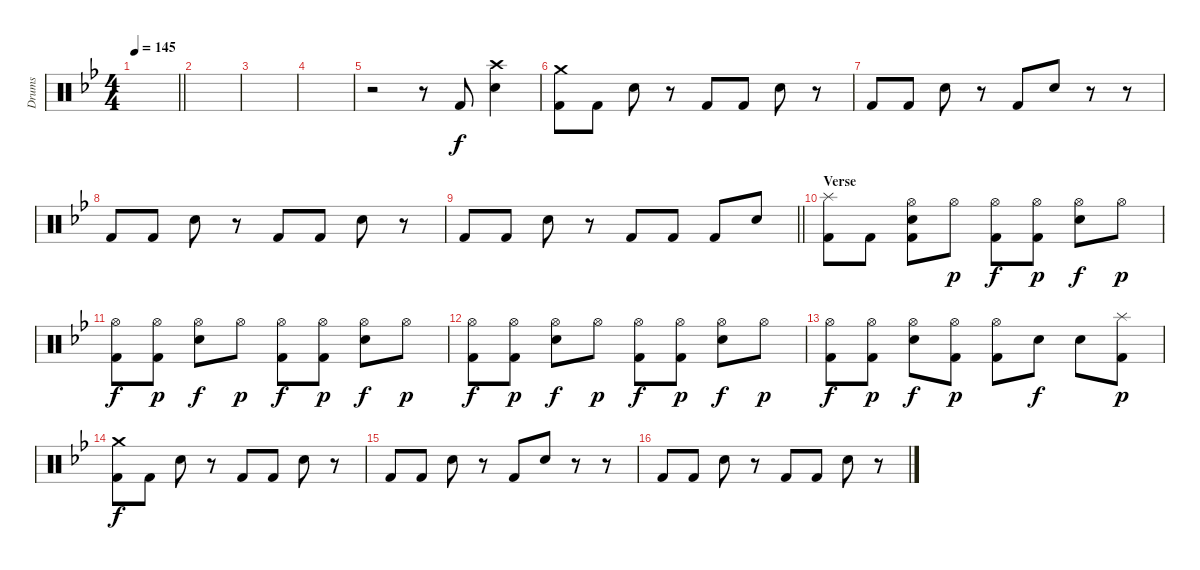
\track ("Drums" "Drums") {instrument percussion}
\staff {score}
\articulation defaults
\ts (4 4)
\tempo 145
\clef neutral
\barLineRight lightlight
\ks bb
|
|
|
|
r.2 r.8 "Kick (hit) 2".8 ("Crash high (hit)" "Electric Snare (hit)").4 |
("Crash medium (hit)" "Kick (hit) 2").8 "Kick (hit) 2".8 "Electric Snare (hit)".8 r.8 "Kick (hit) 2".8 "Kick (hit) 2".8 "Electric Snare (hit)".8 r.8 |
"Kick (hit) 2".8 "Kick (hit) 2".8 "Electric Snare (hit)".8 r.8 "Kick (hit) 2".8 "Electric Snare (hit)".8 r.8 r.8 |
"Kick (hit) 2".8 "Kick (hit) 2".8 "Electric Snare (hit)".8 r.8 "Kick (hit) 2".8 "Kick (hit) 2".8 "Electric Snare (hit)".8 r.8 |
\barLineRight lightlight "Kick (hit) 2".8 "Kick (hit) 2".8 "Electric Snare (hit)".8
r.8 "Kick (hit) 2".8 "Kick (hit) 2".8 "Kick (hit) 2".8 "Electric Snare (hit)".8 |
\section ("" "Verse")
("Splash (hit)" "Kick (hit) 2").8 "Kick (hit) 2".8 ("Hi-Hat (open)" "Electric Snare (hit)" "Kick (hit) 2").8 "Hi-Hat (open)".8{dy p} ("Hi-Hat (open)" "Kick (hit) 2").8{dy f} ("Hi-Hat (open)" "Kick (hit) 2").8{dy p} ("Hi-Hat (open)" "Electric Snare (hit)").8{dy f} "Hi-Hat (open)".8{dy p} |
("Hi-Hat (open)" "Kick (hit) 2").8{dy f} ("Hi-Hat (open)" "Kick (hit) 2").8{dy p} ("Hi-Hat (open)" "Electric Snare (hit)").8{dy f} "Hi-Hat (open)".8{dy p} ("Hi-Hat (open)" "Kick (hit) 2").8{dy f} ("Hi-Hat (open)" "Kick (hit) 2").8{dy p} ("Hi-Hat (open)" "Electric Snare (hit)").8{dy f} "Hi-Hat (open)".8{dy p} |
("Hi-Hat (open)" "Kick (hit) 2").8{dy f} ("Hi-Hat (open)" "Kick (hit) 2").8{dy p} ("Hi-Hat (open)" "Electric Snare (hit)").8{dy f} "Hi-Hat (open)".8{dy p} ("Hi-Hat (open)" "Kick (hit) 2").8{dy f} ("Hi-Hat (open)" "Kick (hit) 2").8{dy p} ("Hi-Hat (open)" "Electric Snare (hit)").8{dy f} "Hi-Hat (open)".8{dy p} |
("Hi-Hat (open)" "Kick (hit) 2").8{dy f} ("Hi-Hat (open)" "Kick (hit) 2").8{dy p} ("Hi-Hat (open)" "Electric Snare (hit)").8{dy f} ("Hi-Hat (open)" "Kick (hit) 2").8{dy p} ("Hi-Hat (open)" "Kick (hit) 2").8 "Electric Snare (hit)".8{dy f} "Electric Snare (hit)".8 ("Splash (hit)" "Kick (hit) 2").8{dy p} |
("Crash medium (hit)" "Kick (hit) 2").8{dy f} "Kick (hit) 2".8 "Electric Snare (hit)".8 r.8 "Kick (hit) 2".8 "Kick (hit) 2".8 "Electric Snare (hit)".8 r.8 |
"Kick (hit) 2".8 "Kick (hit) 2".8 "Electric Snare (hit)".8 r.8 "Kick (hit) 2".8 "Electric Snare (hit)".8 r.8 r.8 |
"Kick (hit) 2".8 "Kick (hit) 2".8 "Electric Snare (hit)".8 r.8 "Kick (hit) 2".8 "Kick (hit) 2".8 "Electric Snare (hit)".8 r.8
